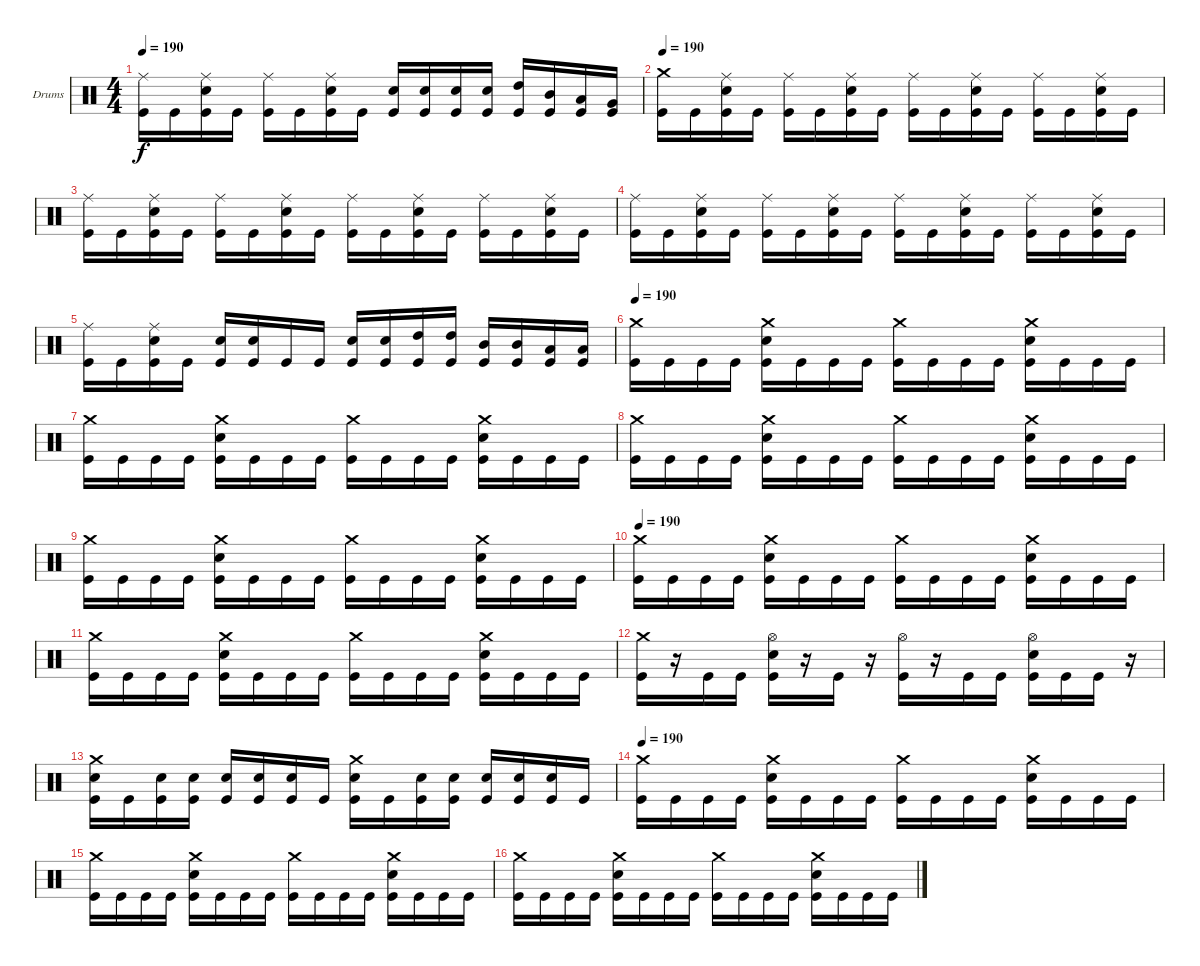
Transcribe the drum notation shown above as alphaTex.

\bracketExtendMode groupsimilarinstruments
\firstSystemTrackNameOrientation horizontal
\otherSystemsTrackNameOrientation horizontal
\track ("Drumkit" "Drums") {instrument percussion}
\staff {score}
\articulation defaults
\ts (4 4)
\tempo 190
\clef neutral
\ks c
("Ride (middle)" "Kick (hit)").16{dy f} "Kick (hit)".16 ("Ride (middle)" "Snare (hit) 2" "Kick (hit)").16 "Kick (hit)".16 ("Ride (middle)" "Kick (hit)").16 "Kick (hit)".16 ("Ride (middle)" "Snare (hit) 2" "Kick (hit)").16 "Kick (hit)".16 ("Snare (hit) 2" "Kick (hit)").16 ("Snare (hit) 2" "Kick (hit)").16 ("Snare (hit) 2" "Kick (hit)").16 ("Snare (hit) 2" "Kick (hit)").16 ("High Tom (hit)" "Kick (hit)").16 ("Mid Tom (hit)" "Kick (hit)").16 ("Low Tom (hit)" "Kick (hit)").16 ("Very Low Tom (hit)" "Kick (hit)").16 |
\tempo 190
("Crash medium (hit)" "Kick (hit)").16 "Kick (hit)".16 ("Ride (middle)" "Snare (hit) 2" "Kick (hit)").16 "Kick (hit)".16 ("Ride (middle)" "Kick (hit)").16 "Kick (hit)".16 ("Ride (middle)" "Snare (hit) 2" "Kick (hit)").16 "Kick (hit)".16 ("Ride (middle)" "Kick (hit)").16 "Kick (hit)".16 ("Ride (middle)" "Snare (hit) 2" "Kick (hit)").16 "Kick (hit)".16 ("Ride (middle)" "Kick (hit)").16 "Kick (hit)".16 ("Ride (middle)" "Snare (hit) 2" "Kick (hit)").16 "Kick (hit)".16 |
("Ride (middle)" "Kick (hit)").16 "Kick (hit)".16 ("Ride (middle)" "Snare (hit) 2" "Kick (hit)").16 "Kick (hit)".16 ("Ride (middle)" "Kick (hit)").16 "Kick (hit)".16 ("Ride (middle)" "Snare (hit) 2" "Kick (hit)").16 "Kick (hit)".16 ("Ride (middle)" "Kick (hit)").16 "Kick (hit)".16 ("Ride (middle)" "Snare (hit) 2" "Kick (hit)").16 "Kick (hit)".16 ("Ride (middle)" "Kick (hit)").16 "Kick (hit)".16 ("Ride (middle)" "Snare (hit) 2" "Kick (hit)").16 "Kick (hit)".16 |
("Ride (middle)" "Kick (hit)").16 "Kick (hit)".16 ("Ride (middle)" "Snare (hit) 2" "Kick (hit)").16 "Kick (hit)".16 ("Ride (middle)" "Kick (hit)").16 "Kick (hit)".16 ("Ride (middle)" "Snare (hit) 2" "Kick (hit)").16 "Kick (hit)".16 ("Ride (middle)" "Kick (hit)").16 "Kick (hit)".16 ("Ride (middle)" "Snare (hit) 2" "Kick (hit)").16 "Kick (hit)".16 ("Ride (middle)" "Kick (hit)").16 "Kick (hit)".16 ("Ride (middle)" "Snare (hit) 2" "Kick (hit)").16 "Kick (hit)".16 |
("Ride (middle)" "Kick (hit)").16 "Kick (hit)".16 ("Ride (middle)" "Snare (hit) 2" "Kick (hit)").16 "Kick (hit)".16 ("Snare (hit) 2" "Kick (hit)").16 ("Snare (hit) 2" "Kick (hit)").16 "Kick (hit)".16 "Kick (hit)".16 ("Snare (hit) 2" "Kick (hit)").16 ("Snare (hit) 2" "Kick (hit)").16 ("High Tom (hit)" "Kick (hit)").16 ("High Tom (hit)" "Kick (hit)").16 ("Mid Tom (hit)" "Kick (hit)").16 ("Mid Tom (hit)" "Kick (hit)").16 ("Low Tom (hit)" "Kick (hit)").16 ("Low Tom (hit)" "Kick (hit)").16 |
\tempo 190
("Crash medium (hit)" "Kick (hit)").16 "Kick (hit)".16 "Kick (hit)".16 "Kick (hit)".16 ("Crash medium (hit)" "Snare (hit) 2" "Kick (hit)").16 "Kick (hit)".16 "Kick (hit)".16 "Kick (hit)".16 ("Crash medium (hit)" "Kick (hit)").16 "Kick (hit)".16 "Kick (hit)".16 "Kick (hit)".16 ("Crash medium (hit)" "Snare (hit) 2" "Kick (hit)").16 "Kick (hit)".16 "Kick (hit)".16 "Kick (hit)".16 |
("Crash medium (hit)" "Kick (hit)").16 "Kick (hit)".16 "Kick (hit)".16 "Kick (hit)".16 ("Crash medium (hit)" "Snare (hit) 2" "Kick (hit)").16 "Kick (hit)".16 "Kick (hit)".16 "Kick (hit)".16 ("Crash medium (hit)" "Kick (hit)").16 "Kick (hit)".16 "Kick (hit)".16 "Kick (hit)".16 ("Crash medium (hit)" "Snare (hit) 2" "Kick (hit)").16 "Kick (hit)".16 "Kick (hit)".16 "Kick (hit)".16 |
("Crash medium (hit)" "Kick (hit)").16 "Kick (hit)".16 "Kick (hit)".16 "Kick (hit)".16 ("Crash medium (hit)" "Snare (hit) 2" "Kick (hit)").16 "Kick (hit)".16 "Kick (hit)".16 "Kick (hit)".16 ("Crash medium (hit)" "Kick (hit)").16 "Kick (hit)".16 "Kick (hit)".16 "Kick (hit)".16 ("Crash medium (hit)" "Snare (hit) 2" "Kick (hit)").16 "Kick (hit)".16 "Kick (hit)".16 "Kick (hit)".16 |
("Crash medium (hit)" "Kick (hit)").16 "Kick (hit)".16 "Kick (hit)".16 "Kick (hit)".16 ("Crash medium (hit)" "Snare (hit) 2" "Kick (hit)").16 "Kick (hit)".16 "Kick (hit)".16 "Kick (hit)".16 ("Crash medium (hit)" "Kick (hit)").16 "Kick (hit)".16 "Kick (hit)".16 "Kick (hit)".16 ("Crash medium (hit)" "Snare (hit) 2" "Kick (hit)").16 "Kick (hit)".16 "Kick (hit)".16 "Kick (hit)".16 |
\tempo 190
("Crash medium (hit)" "Kick (hit)").16 "Kick (hit)".16 "Kick (hit)".16 "Kick (hit)".16 ("Crash medium (hit)" "Snare (hit) 2" "Kick (hit)").16 "Kick (hit)".16 "Kick (hit)".16 "Kick (hit)".16 ("Crash medium (hit)" "Kick (hit)").16 "Kick (hit)".16 "Kick (hit)".16 "Kick (hit)".16 ("Crash medium (hit)" "Snare (hit) 2" "Kick (hit)").16 "Kick (hit)".16 "Kick (hit)".16 "Kick (hit)".16 |
("Crash medium (hit)" "Kick (hit)").16 "Kick (hit)".16 "Kick (hit)".16 "Kick (hit)".16 ("Crash medium (hit)" "Snare (hit) 2" "Kick (hit)").16 "Kick (hit)".16 "Kick (hit)".16 "Kick (hit)".16 ("Crash medium (hit)" "Kick (hit)").16 "Kick (hit)".16 "Kick (hit)".16 "Kick (hit)".16 ("Crash medium (hit)" "Snare (hit) 2" "Kick (hit)").16 "Kick (hit)".16 "Kick (hit)".16 "Kick (hit)".16 |
("Crash medium (hit)" "Kick (hit)").16 r.16 "Kick (hit)".16 "Kick (hit)".16 ("Hi-Hat (open)" "Snare (hit) 2" "Kick (hit)").16 r.16 "Kick (hit)".16 r.16 ("Hi-Hat (open)" "Kick (hit)").16 r.16 "Kick (hit)".16 "Kick (hit)".16 ("Hi-Hat (open)" "Snare (hit) 2" "Kick (hit)").16 "Kick (hit)".16 "Kick (hit)".16 r.16 |
("Crash medium (hit)" "Snare (hit) 2" "Kick (hit)").16 "Kick (hit)".16 ("Snare (hit) 2" "Kick (hit)").16 ("Snare (hit) 2" "Kick (hit)").16 ("Snare (hit) 2" "Kick (hit)").16 ("Snare (hit) 2" "Kick (hit)").16 ("Snare (hit) 2" "Kick (hit)").16 "Kick (hit)".16 ("Crash medium (hit)" "Snare (hit) 2" "Kick (hit)").16 "Kick (hit)".16 ("Snare (hit) 2" "Kick (hit)").16 ("Snare (hit) 2" "Kick (hit)").16 ("Snare (hit) 2" "Kick (hit)").16 ("Snare (hit) 2" "Kick (hit)").16 ("Snare (hit) 2" "Kick (hit)").16 "Kick (hit)".16 |
\tempo 190
("Crash medium (hit)" "Kick (hit)").16 "Kick (hit)".16 "Kick (hit)".16 "Kick (hit)".16 ("Crash medium (hit)" "Snare (hit) 2" "Kick (hit)").16 "Kick (hit)".16 "Kick (hit)".16 "Kick (hit)".16 ("Crash medium (hit)" "Kick (hit)").16 "Kick (hit)".16 "Kick (hit)".16 "Kick (hit)".16 ("Crash medium (hit)" "Snare (hit) 2" "Kick (hit)").16 "Kick (hit)".16 "Kick (hit)".16 "Kick (hit)".16 |
("Crash medium (hit)" "Kick (hit)").16 "Kick (hit)".16 "Kick (hit)".16 "Kick (hit)".16 ("Crash medium (hit)" "Snare (hit) 2" "Kick (hit)").16 "Kick (hit)".16 "Kick (hit)".16 "Kick (hit)".16 ("Crash medium (hit)" "Kick (hit)").16 "Kick (hit)".16 "Kick (hit)".16 "Kick (hit)".16 ("Crash medium (hit)" "Snare (hit) 2" "Kick (hit)").16 "Kick (hit)".16 "Kick (hit)".16 "Kick (hit)".16 |
("Crash medium (hit)" "Kick (hit)").16 "Kick (hit)".16 "Kick (hit)".16 "Kick (hit)".16 ("Crash medium (hit)" "Snare (hit) 2" "Kick (hit)").16 "Kick (hit)".16 "Kick (hit)".16 "Kick (hit)".16 ("Crash medium (hit)" "Kick (hit)").16 "Kick (hit)".16 "Kick (hit)".16 "Kick (hit)".16 ("Crash medium (hit)" "Snare (hit) 2" "Kick (hit)").16 "Kick (hit)".16 "Kick (hit)".16 "Kick (hit)".16
